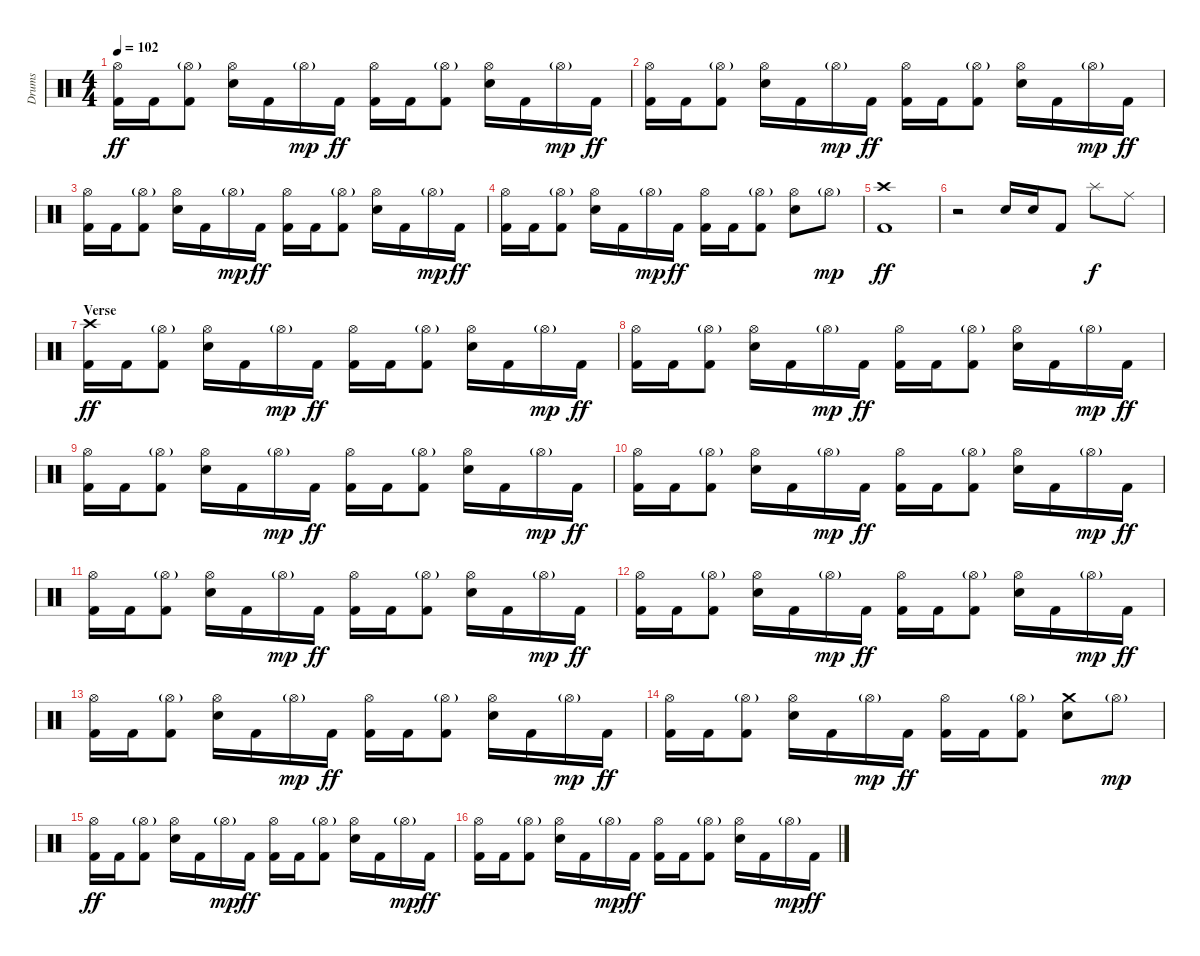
\track ("Drums" "Drums") {instrument percussion}
\staff {score}
\articulation defaults
\ts (4 4)
\tempo 102
\clef neutral
\ks c
("Hi-Hat (open)" "Kick (hit) 2").16{dy ff} "Kick (hit) 2".16 ("Hi-Hat (open)"{g} "Kick (hit) 2").8 ("Hi-Hat (open)" "Electric Snare (hit)").16 "Kick (hit) 2".16 "Hi-Hat (open)"{g}.16{dy mp} "Kick (hit) 2".16{dy ff} ("Hi-Hat (open)" "Kick (hit) 2").16 "Kick (hit) 2".16 ("Hi-Hat (open)"{g} "Kick (hit) 2").8 ("Hi-Hat (open)" "Electric Snare (hit)").16 "Kick (hit) 2".16 "Hi-Hat (open)"{g}.16{dy mp} "Kick (hit) 2".16{dy ff} |
("Hi-Hat (open)" "Kick (hit) 2").16 "Kick (hit) 2".16 ("Hi-Hat (open)"{g} "Kick (hit) 2").8 ("Hi-Hat (open)" "Electric Snare (hit)").16 "Kick (hit) 2".16 "Hi-Hat (open)"{g}.16{dy mp} "Kick (hit) 2".16{dy ff} ("Hi-Hat (open)" "Kick (hit) 2").16 "Kick (hit) 2".16 ("Hi-Hat (open)"{g} "Kick (hit) 2").8 ("Hi-Hat (open)" "Electric Snare (hit)").16 "Kick (hit) 2".16 "Hi-Hat (open)"{g}.16{dy mp} "Kick (hit) 2".16{dy ff} |
("Hi-Hat (open)" "Kick (hit) 2").16 "Kick (hit) 2".16 ("Hi-Hat (open)"{g} "Kick (hit) 2").8 ("Hi-Hat (open)" "Electric Snare (hit)").16 "Kick (hit) 2".16 "Hi-Hat (open)"{g}.16{dy mp} "Kick (hit) 2".16{dy ff} ("Hi-Hat (open)" "Kick (hit) 2").16 "Kick (hit) 2".16 ("Hi-Hat (open)"{g} "Kick (hit) 2").8 ("Hi-Hat (open)" "Electric Snare (hit)").16 "Kick (hit) 2".16 "Hi-Hat (open)"{g}.16{dy mp} "Kick (hit) 2".16{dy ff} |
("Hi-Hat (open)" "Kick (hit) 2").16 "Kick (hit) 2".16 ("Hi-Hat (open)"{g} "Kick (hit) 2").8 ("Hi-Hat (open)" "Electric Snare (hit)").16 "Kick (hit) 2".16 "Hi-Hat (open)"{g}.16{dy mp} "Kick (hit) 2".16{dy ff} ("Hi-Hat (open)" "Kick (hit) 2").16 "Kick (hit) 2".16 ("Hi-Hat (open)"{g} "Kick (hit) 2").8 ("Hi-Hat (open)" "Electric Snare (hit)").8 "Hi-Hat (open)"{g}.8{dy mp} |
("Crash high (hit)" "Kick (hit) 2").1{dy ff} |
r.2 "Electric Snare (hit)".16 "Electric Snare (hit)".16 "Kick (hit) 2".8 "Splash (hit)".8{dy f} "Ride (middle)".8 |
\section ("" "Verse")
("Crash high (hit)" "Kick (hit) 2").16{dy ff} "Kick (hit) 2".16 ("Hi-Hat (open)"{g} "Kick (hit) 2").8 ("Hi-Hat (open)" "Electric Snare (hit)").16 "Kick (hit) 2".16 "Hi-Hat (open)"{g}.16{dy mp} "Kick (hit) 2".16{dy ff} ("Hi-Hat (open)" "Kick (hit) 2").16 "Kick (hit) 2".16 ("Hi-Hat (open)"{g} "Kick (hit) 2").8 ("Hi-Hat (open)" "Electric Snare (hit)").16 "Kick (hit) 2".16 "Hi-Hat (open)"{g}.16{dy mp} "Kick (hit) 2".16{dy ff} |
("Hi-Hat (open)" "Kick (hit) 2").16 "Kick (hit) 2".16 ("Hi-Hat (open)"{g} "Kick (hit) 2").8 ("Hi-Hat (open)" "Electric Snare (hit)").16 "Kick (hit) 2".16 "Hi-Hat (open)"{g}.16{dy mp} "Kick (hit) 2".16{dy ff} ("Hi-Hat (open)" "Kick (hit) 2").16 "Kick (hit) 2".16 ("Hi-Hat (open)"{g} "Kick (hit) 2").8 ("Hi-Hat (open)" "Electric Snare (hit)").16 "Kick (hit) 2".16 "Hi-Hat (open)"{g}.16{dy mp} "Kick (hit) 2".16{dy ff} |
("Hi-Hat (open)" "Kick (hit) 2").16 "Kick (hit) 2".16 ("Hi-Hat (open)"{g} "Kick (hit) 2").8 ("Hi-Hat (open)" "Electric Snare (hit)").16 "Kick (hit) 2".16 "Hi-Hat (open)"{g}.16{dy mp} "Kick (hit) 2".16{dy ff} ("Hi-Hat (open)" "Kick (hit) 2").16 "Kick (hit) 2".16 ("Hi-Hat (open)"{g} "Kick (hit) 2").8 ("Hi-Hat (open)" "Electric Snare (hit)").16 "Kick (hit) 2".16 "Hi-Hat (open)"{g}.16{dy mp} "Kick (hit) 2".16{dy ff} |
("Hi-Hat (open)" "Kick (hit) 2").16 "Kick (hit) 2".16 ("Hi-Hat (open)"{g} "Kick (hit) 2").8 ("Hi-Hat (open)" "Electric Snare (hit)").16 "Kick (hit) 2".16 "Hi-Hat (open)"{g}.16{dy mp} "Kick (hit) 2".16{dy ff} ("Hi-Hat (open)" "Kick (hit) 2").16 "Kick (hit) 2".16 ("Hi-Hat (open)"{g} "Kick (hit) 2").8 ("Hi-Hat (open)" "Electric Snare (hit)").16 "Kick (hit) 2".16 "Hi-Hat (open)"{g}.16{dy mp} "Kick (hit) 2".16{dy ff} |
("Hi-Hat (open)" "Kick (hit) 2").16 "Kick (hit) 2".16 ("Hi-Hat (open)"{g} "Kick (hit) 2").8 ("Hi-Hat (open)" "Electric Snare (hit)").16 "Kick (hit) 2".16 "Hi-Hat (open)"{g}.16{dy mp} "Kick (hit) 2".16{dy ff} ("Hi-Hat (open)" "Kick (hit) 2").16 "Kick (hit) 2".16 ("Hi-Hat (open)"{g} "Kick (hit) 2").8 ("Hi-Hat (open)" "Electric Snare (hit)").16 "Kick (hit) 2".16 "Hi-Hat (open)"{g}.16{dy mp} "Kick (hit) 2".16{dy ff} |
("Hi-Hat (open)" "Kick (hit) 2").16 "Kick (hit) 2".16 ("Hi-Hat (open)"{g} "Kick (hit) 2").8 ("Hi-Hat (open)" "Electric Snare (hit)").16 "Kick (hit) 2".16 "Hi-Hat (open)"{g}.16{dy mp} "Kick (hit) 2".16{dy ff} ("Hi-Hat (open)" "Kick (hit) 2").16 "Kick (hit) 2".16 ("Hi-Hat (open)"{g} "Kick (hit) 2").8 ("Hi-Hat (open)" "Electric Snare (hit)").16 "Kick (hit) 2".16 "Hi-Hat (open)"{g}.16{dy mp} "Kick (hit) 2".16{dy ff} |
("Hi-Hat (open)" "Kick (hit) 2").16 "Kick (hit) 2".16 ("Hi-Hat (open)"{g} "Kick (hit) 2").8 ("Hi-Hat (open)" "Electric Snare (hit)").16 "Kick (hit) 2".16 "Hi-Hat (open)"{g}.16{dy mp} "Kick (hit) 2".16{dy ff} ("Hi-Hat (open)" "Kick (hit) 2").16 "Kick (hit) 2".16 ("Hi-Hat (open)"{g} "Kick (hit) 2").8 ("Hi-Hat (open)" "Electric Snare (hit)").16 "Kick (hit) 2".16 "Hi-Hat (open)"{g}.16{dy mp} "Kick (hit) 2".16{dy ff} |
("Hi-Hat (open)" "Kick (hit) 2").16 "Kick (hit) 2".16 ("Hi-Hat (open)"{g} "Kick (hit) 2").8 ("Hi-Hat (open)" "Electric Snare (hit)").16 "Kick (hit) 2".16 "Hi-Hat (open)"{g}.16{dy mp} "Kick (hit) 2".16{dy ff} ("Hi-Hat (open)" "Kick (hit) 2").16 "Kick (hit) 2".16 ("Hi-Hat (open)"{g} "Kick (hit) 2").8 ("Crash medium (hit)" "Electric Snare (hit)").8 "Hi-Hat (open)"{g}.8{dy mp} |
("Hi-Hat (open)" "Kick (hit) 2").16{dy ff} "Kick (hit) 2".16 ("Hi-Hat (open)"{g} "Kick (hit) 2").8 ("Hi-Hat (open)" "Electric Snare (hit)").16 "Kick (hit) 2".16 "Hi-Hat (open)"{g}.16{dy mp} "Kick (hit) 2".16{dy ff} ("Hi-Hat (open)" "Kick (hit) 2").16 "Kick (hit) 2".16 ("Hi-Hat (open)"{g} "Kick (hit) 2").8 ("Hi-Hat (open)" "Electric Snare (hit)").16 "Kick (hit) 2".16 "Hi-Hat (open)"{g}.16{dy mp} "Kick (hit) 2".16{dy ff} |
("Hi-Hat (open)" "Kick (hit) 2").16 "Kick (hit) 2".16 ("Hi-Hat (open)"{g} "Kick (hit) 2").8 ("Hi-Hat (open)" "Electric Snare (hit)").16 "Kick (hit) 2".16 "Hi-Hat (open)"{g}.16{dy mp} "Kick (hit) 2".16{dy ff} ("Hi-Hat (open)" "Kick (hit) 2").16 "Kick (hit) 2".16 ("Hi-Hat (open)"{g} "Kick (hit) 2").8 ("Hi-Hat (open)" "Electric Snare (hit)").16 "Kick (hit) 2".16 "Hi-Hat (open)"{g}.16{dy mp} "Kick (hit) 2".16{dy ff}
